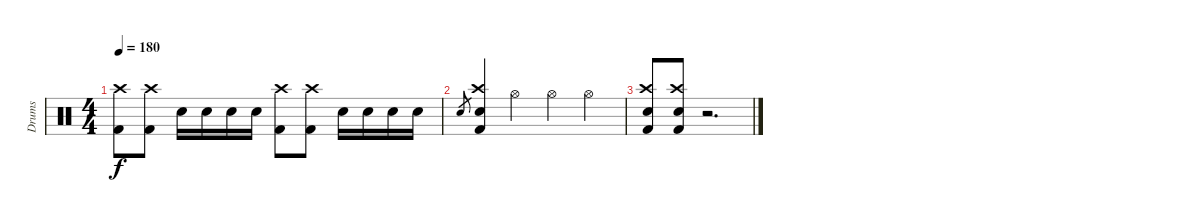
\track ("Drums" "Drums") {instrument percussion}
\staff {score}
\articulation defaults
\ts (4 4)
\tempo 180
\clef neutral
\ks c
("Kick (hit) 2" "Crash high (hit)").8{dy f} ("Kick (hit) 2" "Crash high (hit)").8 "Electric Snare (hit)".16 "Electric Snare (hit)".16 "Electric Snare (hit)".16 "Electric Snare (hit)".16 ("Kick (hit) 2" "Crash high (hit)").8 ("Kick (hit) 2" "Crash high (hit)").8 "Electric Snare (hit)".16 "Electric Snare (hit)".16 "Electric Snare (hit)".16 "Electric Snare (hit)".16 |
"Electric Snare (hit)".8{gr} ("Electric Snare (hit)" "Kick (hit) 2" "Crash high (hit)").4 "Hi-Hat (open)".4 "Hi-Hat (open)".4 "Hi-Hat (open)".4 |
("Kick (hit) 2" "Electric Snare (hit)" "Crash high (hit)").8 ("Kick (hit) 2" "Electric Snare (hit)" "Crash high (hit)").8 r.2{d}
